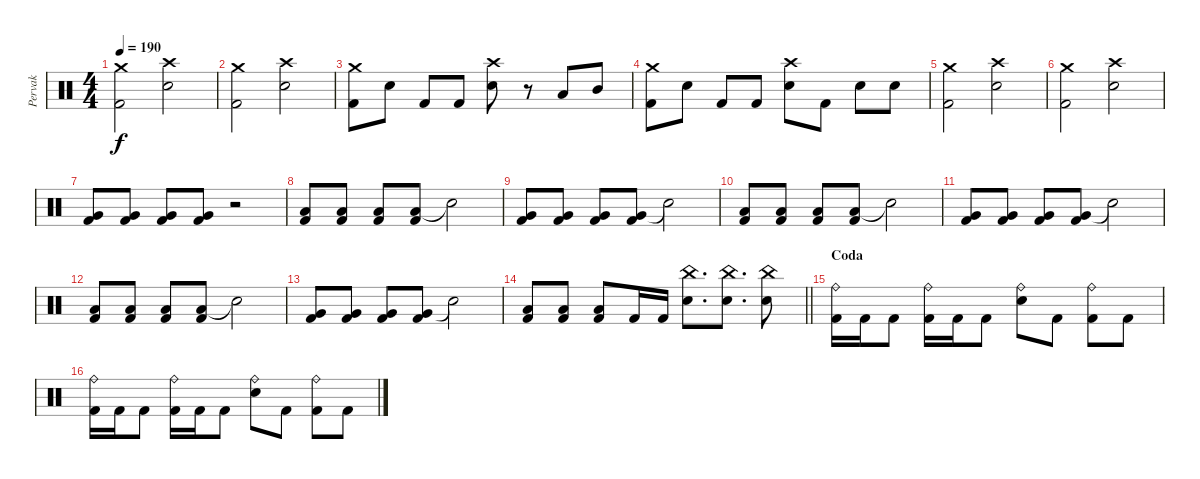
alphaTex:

\track ("Pervak" "Pervak") {instrument percussion}
\staff {score}
\articulation defaults
\ts (4 4)
\tempo 190
\clef neutral
\ks c
("Crash medium (hit)" "Kick (hit) 2").2{dy f} ("Crash high (hit)" "Electric Snare (hit)").2 |
("Crash medium (hit)" "Kick (hit) 2").2 ("Crash high (hit)" "Electric Snare (hit)").2 |
("Crash medium (hit)" "Kick (hit) 2").8 "Electric Snare (hit)".8 "Kick (hit) 2".8 "Kick (hit) 2".8 ("Crash high (hit)" "Electric Snare (hit)").8 r.8 "Low Tom (hit)".8 "Mid Tom (hit)".8 |
("Crash medium (hit)" "Kick (hit) 2").8 "Electric Snare (hit)".8 "Kick (hit) 2".8 "Kick (hit) 2".8 ("Crash high (hit)" "Electric Snare (hit)").8 "Kick (hit) 2".8 "Electric Snare (hit)".8 "Electric Snare (hit)".8 |
("Crash medium (hit)" "Kick (hit) 2").2 ("Crash high (hit)" "Electric Snare (hit)").2 |
("Crash medium (hit)" "Kick (hit) 2").2 ("Crash high (hit)" "Electric Snare (hit)").2 |
("Very Low Tom (hit)" "Kick (hit) 2").8 ("Very Low Tom (hit)" "Kick (hit) 2").8 ("Very Low Tom (hit)" "Kick (hit) 2").8 ("Very Low Tom (hit)" "Kick (hit) 2").8 r.2 |
("Low Floor Tom (hit)" "Kick (hit) 2").8 ("Low Floor Tom (hit)" "Kick (hit) 2").8 ("Low Floor Tom (hit)" "Kick (hit) 2").8 ("Low Floor Tom (hit)" "Kick (hit) 2").8 "Snare (hit)"{t}.2 |
("Very Low Tom (hit)" "Kick (hit) 2").8 ("Very Low Tom (hit)" "Kick (hit) 2").8 ("Very Low Tom (hit)" "Kick (hit) 2").8 ("Very Low Tom (hit)" "Kick (hit) 2").8 "Snare (hit)"{t}.2 |
("Low Floor Tom (hit)" "Kick (hit) 2").8 ("Low Floor Tom (hit)" "Kick (hit) 2").8 ("Low Floor Tom (hit)" "Kick (hit) 2").8 ("Low Floor Tom (hit)" "Kick (hit) 2").8 "Snare (hit)"{t}.2 |
("Very Low Tom (hit)" "Kick (hit) 2").8 ("Very Low Tom (hit)" "Kick (hit) 2").8 ("Very Low Tom (hit)" "Kick (hit) 2").8 ("Very Low Tom (hit)" "Kick (hit) 2").8 "Snare (hit)"{t}.2 |
("Low Floor Tom (hit)" "Kick (hit) 2").8 ("Low Floor Tom (hit)" "Kick (hit) 2").8 ("Low Floor Tom (hit)" "Kick (hit) 2").8 ("Low Floor Tom (hit)" "Kick (hit) 2").8 "Snare (hit)"{t}.2 |
("Very Low Tom (hit)" "Kick (hit) 2").8 ("Very Low Tom (hit)" "Kick (hit) 2").8 ("Very Low Tom (hit)" "Kick (hit) 2").8 ("Very Low Tom (hit)" "Kick (hit) 2").8 "Snare (hit)"{t}.2 |
\barLineRight lightlight
("Low Floor Tom (hit)" "Kick (hit) 2").8 ("Low Floor Tom (hit)" "Kick (hit) 2").8 ("Low Floor Tom (hit)" "Kick (hit) 2").8 "Kick (hit) 2".16 "Kick (hit) 2".16 ("China (hit)" "Electric Snare (hit)").8{d} ("China (hit)" "Electric Snare (hit)").8{d} ("China (hit)" "Electric Snare (hit)").8 |
\section ("" "Coda")
("Ride (bell)" "Kick (hit) 2").16 "Kick (hit) 2".16 "Kick (hit) 2".8 ("Ride (bell)" "Kick (hit) 2").16 "Kick (hit) 2".16 "Kick (hit) 2".8 ("Ride (bell)" "Electric Snare (hit)").8 "Kick (hit) 2".8 ("Ride (bell)" "Kick (hit) 2").8 "Kick (hit) 2".8 |
("Ride (bell)" "Kick (hit) 2").16 "Kick (hit) 2".16 "Kick (hit) 2".8 ("Ride (bell)" "Kick (hit) 2").16 "Kick (hit) 2".16 "Kick (hit) 2".8 ("Ride (bell)" "Electric Snare (hit)").8 "Kick (hit) 2".8 ("Ride (bell)" "Kick (hit) 2").8 "Kick (hit) 2".8
